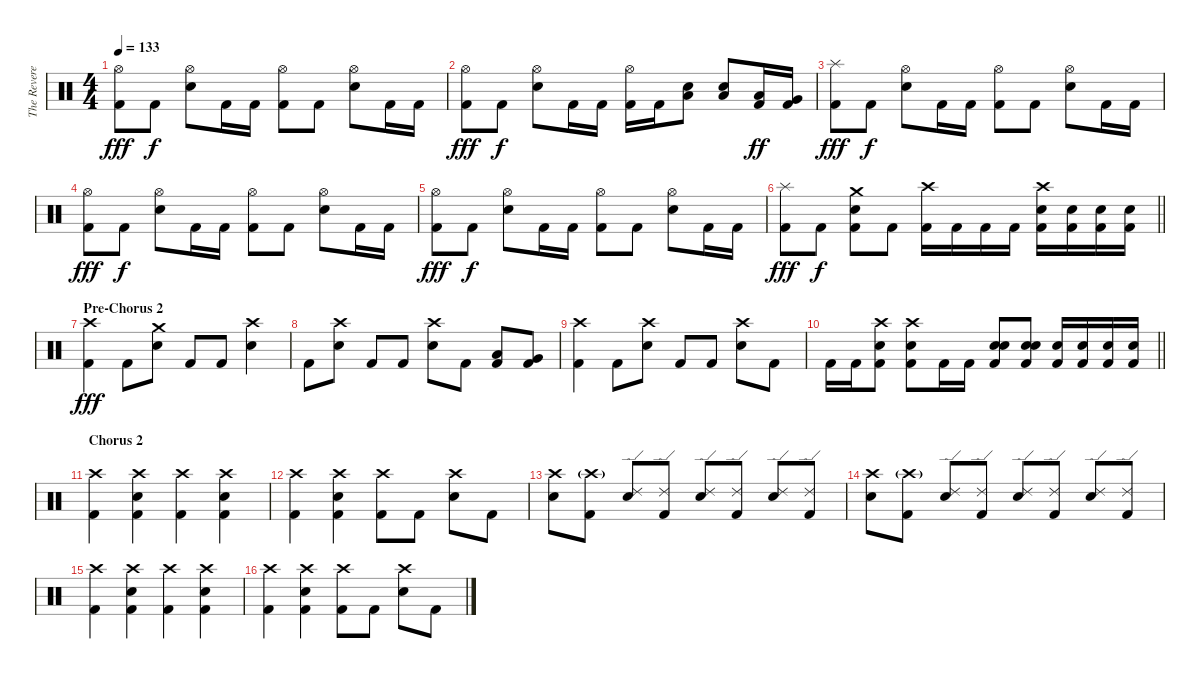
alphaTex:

\track ("The Reverend (R.I.P.) [Drums]" "The Revere") {instrument percussion}
\staff {score}
\articulation defaults
\ts (4 4)
\tempo 133
\clef neutral
\ks c
("Hi-Hat (open)" "Kick (hit) 2").8{dy fff} "Kick (hit) 2".8{dy f} ("Hi-Hat (open)" "Electric Snare (hit)").8 "Kick (hit) 2".16 "Kick (hit) 2".16 ("Hi-Hat (open)" "Kick (hit) 2").8 "Kick (hit) 2".8 ("Hi-Hat (open)" "Electric Snare (hit)").8 "Kick (hit) 2".16 "Kick (hit) 2".16 |
("Hi-Hat (open)" "Kick (hit) 2").8{dy fff} "Kick (hit) 2".8{dy f} ("Hi-Hat (open)" "Electric Snare (hit)").8 "Kick (hit) 2".16 "Kick (hit) 2".16 ("Hi-Hat (open)" "Kick (hit) 2").16 "Kick (hit) 2".16 ("Low Floor Tom (hit)" "Electric Snare (hit)").8 ("Low Floor Tom (hit)" "Electric Snare (hit)").8 ("Low Tom (hit)" "Kick (hit) 2").16{dy ff} ("Very Low Tom (hit)" "Kick (hit) 2").16 |
("Splash (hit)" "Kick (hit) 2").8{dy fff} "Kick (hit) 2".8{dy f} ("Hi-Hat (open)" "Electric Snare (hit)").8 "Kick (hit) 2".16 "Kick (hit) 2".16 ("Hi-Hat (open)" "Kick (hit) 2").8 "Kick (hit) 2".8 ("Hi-Hat (open)" "Electric Snare (hit)").8 "Kick (hit) 2".16 "Kick (hit) 2".16 |
("Hi-Hat (open)" "Kick (hit) 2").8{dy fff} "Kick (hit) 2".8{dy f} ("Hi-Hat (open)" "Electric Snare (hit)").8 "Kick (hit) 2".16 "Kick (hit) 2".16 ("Hi-Hat (open)" "Kick (hit) 2").8 "Kick (hit) 2".8 ("Hi-Hat (open)" "Electric Snare (hit)").8 "Kick (hit) 2".16 "Kick (hit) 2".16 |
("Hi-Hat (open)" "Kick (hit) 2").8{dy fff} "Kick (hit) 2".8{dy f} ("Hi-Hat (open)" "Electric Snare (hit)").8 "Kick (hit) 2".16 "Kick (hit) 2".16 ("Hi-Hat (open)" "Kick (hit) 2").8 "Kick (hit) 2".8 ("Hi-Hat (open)" "Electric Snare (hit)").8 "Kick (hit) 2".16 "Kick (hit) 2".16 |
\barLineRight lightlight
("Splash (hit)" "Kick (hit) 2").8{dy fff} "Kick (hit) 2".8{dy f} ("Crash medium (hit)" "Electric Snare (hit)" "Kick (hit) 2").8 "Kick (hit) 2".8 ("Crash high (hit)" "Kick (hit) 2").16 "Kick (hit) 2".16 "Kick (hit) 2".16 "Kick (hit) 2".16 ("Crash high (hit)" "Electric Snare (hit)" "Kick (hit) 2").16 ("Electric Snare (hit)" "Kick (hit) 2").16 ("Electric Snare (hit)" "Kick (hit) 2").16 ("Electric Snare (hit)" "Kick (hit) 2").16 |
\section ("" "Pre-Chorus 2")
("Crash high (hit)" "Kick (hit) 2").4{dy fff} "Kick (hit) 2".8 ("Crash medium (hit)" "Electric Snare (hit)").8 "Kick (hit) 2".8 "Kick (hit) 2".8 ("Crash high (hit)" "Electric Snare (hit)").4 |
"Kick (hit) 2".8 ("Crash high (hit)" "Electric Snare (hit)").8 "Kick (hit) 2".8 "Kick (hit) 2".8 ("Crash high (hit)" "Electric Snare (hit)").8 "Kick (hit) 2".8 ("Low Tom (hit)" "Kick (hit) 2").8 ("Very Low Tom (hit)" "Kick (hit) 2").8 |
("Crash high (hit)" "Kick (hit) 2").4 "Kick (hit) 2".8 ("Crash high (hit)" "Electric Snare (hit)").8 "Kick (hit) 2".8 "Kick (hit) 2".8 ("Crash high (hit)" "Electric Snare (hit)").8 "Kick (hit) 2".8 |
\barLineRight lightlight "Kick (hit) 2".16 "Kick (hit) 2".16
("Crash high (hit)" "Electric Snare (hit)" "Kick (hit) 2").8 ("Crash high (hit)" "Electric Snare (hit)" "Kick (hit) 2").8 "Kick (hit) 2".16 "Kick (hit) 2".16 ("Electric Snare (hit)" "Electric Snare (hit)" "Kick (hit) 2").8 ("Electric Snare (hit)" "Electric Snare (hit)" "Kick (hit) 2").8 ("Electric Snare (hit)" "Kick (hit) 2").16 ("Electric Snare (hit)" "Kick (hit) 2").16 ("Electric Snare (hit)" "Kick (hit) 2").16 ("Electric Snare (hit)" "Kick (hit) 2").16 |
\section ("" "Chorus 2")
("Crash high (hit)" "Kick (hit) 2").4 ("Crash high (hit)" "Electric Snare (hit)" "Kick (hit) 2").4 ("Crash high (hit)" "Kick (hit) 2").4 ("Crash high (hit)" "Electric Snare (hit)" "Kick (hit) 2").4 |
("Crash high (hit)" "Kick (hit) 2").4 ("Crash high (hit)" "Electric Snare (hit)" "Kick (hit) 2").4 ("Crash high (hit)" "Kick (hit) 2").8 "Kick (hit) 2".8 ("Crash high (hit)" "Electric Snare (hit)").8 "Kick (hit) 2".8 |
("Crash high (hit)" "Electric Snare (hit)").8 ("Crash high (hit)"{g} "Kick (hit) 2").8 ("Ride (edge) 2" "Electric Snare (hit)").8 ("Ride (edge) 2" "Kick (hit) 2").8 ("Ride (edge) 2" "Electric Snare (hit)").8 ("Ride (edge) 2" "Kick (hit) 2").8 ("Ride (edge) 2" "Electric Snare (hit)").8 ("Ride (edge) 2" "Kick (hit) 2").8 |
("Crash high (hit)" "Electric Snare (hit)").8 ("Crash high (hit)"{g} "Kick (hit) 2").8 ("Ride (edge) 2" "Electric Snare (hit)").8 ("Ride (edge) 2" "Kick (hit) 2").8 ("Ride (edge) 2" "Electric Snare (hit)").8 ("Ride (edge) 2" "Kick (hit) 2").8 ("Ride (edge) 2" "Electric Snare (hit)").8 ("Ride (edge) 2" "Kick (hit) 2").8 |
("Crash high (hit)" "Kick (hit) 2").4 ("Crash high (hit)" "Electric Snare (hit)" "Kick (hit) 2").4 ("Crash high (hit)" "Kick (hit) 2").4 ("Crash high (hit)" "Electric Snare (hit)" "Kick (hit) 2").4 |
("Crash high (hit)" "Kick (hit) 2").4 ("Crash high (hit)" "Electric Snare (hit)" "Kick (hit) 2").4 ("Crash high (hit)" "Kick (hit) 2").8 "Kick (hit) 2".8 ("Crash high (hit)" "Electric Snare (hit)").8 "Kick (hit) 2".8
